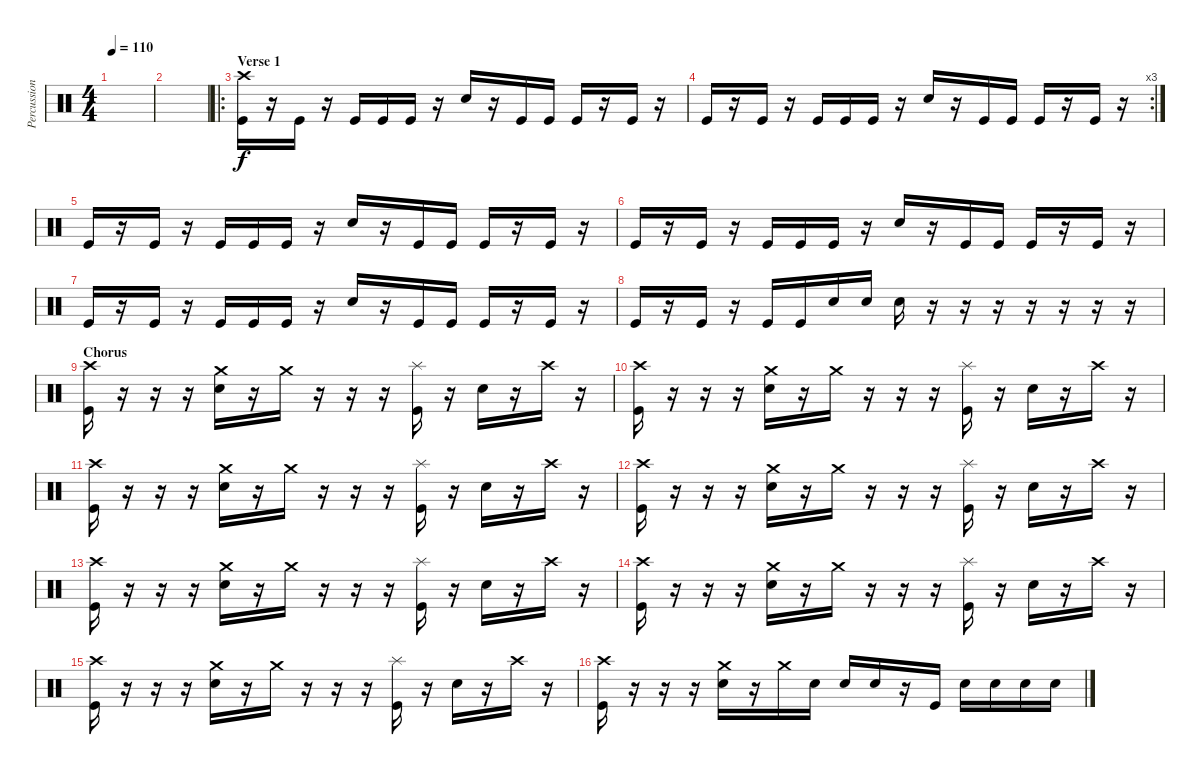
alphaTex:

\track ("Percussions" "Percussion") {instrument percussion}
\staff {score}
\articulation defaults
\ts (4 4)
\tempo 110
\clef neutral
\ks c
|
|
\ro
\section ("" "Verse 1")
("Crash high (hit)" "Kick (hit)").16 r.16 "Kick (hit)".16 r.16 "Kick (hit)".16 "Kick (hit)".16 "Kick (hit)".16 r.16 "Electric Snare (hit)".16 r.16 "Kick (hit)".16 "Kick (hit)".16 "Kick (hit)".16 r.16 "Kick (hit)".16 r.16 |
\rc 3 "Kick (hit)".16
r.16 "Kick (hit)".16 r.16 "Kick (hit)".16 "Kick (hit)".16 "Kick (hit)".16 r.16 "Electric Snare (hit)".16 r.16 "Kick (hit)".16 "Kick (hit)".16 "Kick (hit)".16 r.16 "Kick (hit)".16 r.16 |
"Kick (hit)".16 r.16 "Kick (hit)".16 r.16 "Kick (hit)".16 "Kick (hit)".16 "Kick (hit)".16 r.16 "Electric Snare (hit)".16 r.16 "Kick (hit)".16 "Kick (hit)".16 "Kick (hit)".16 r.16 "Kick (hit)".16 r.16 |
"Kick (hit)".16 r.16 "Kick (hit)".16 r.16 "Kick (hit)".16 "Kick (hit)".16 "Kick (hit)".16 r.16 "Electric Snare (hit)".16 r.16 "Kick (hit)".16 "Kick (hit)".16 "Kick (hit)".16 r.16 "Kick (hit)".16 r.16 |
"Kick (hit)".16 r.16 "Kick (hit)".16 r.16 "Kick (hit)".16 "Kick (hit)".16 "Kick (hit)".16 r.16 "Electric Snare (hit)".16 r.16 "Kick (hit)".16 "Kick (hit)".16 "Kick (hit)".16 r.16 "Kick (hit)".16 r.16 |
"Kick (hit)".16 r.16 "Kick (hit)".16 r.16 "Kick (hit)".16 "Kick (hit)".16 "Electric Snare (hit)".16 "Electric Snare (hit)".16 "Electric Snare (hit)".16 r.16 r.16 r.16 r.16 r.16 r.16 r.16 |
\section ("" "Chorus")
("Crash high (hit)" "Kick (hit)").16 r.16 r.16 r.16 ("Crash medium (hit)" "Electric Snare (hit)").16 r.16 "Crash medium (hit)".16 r.16 r.16 r.16 ("Splash (hit)" "Kick (hit)").16 r.16 "Electric Snare (hit)".16 r.16 "Crash high (hit)".16 r.16 |
("Crash high (hit)" "Kick (hit)").16 r.16 r.16 r.16 ("Crash medium (hit)" "Electric Snare (hit)").16 r.16 "Crash medium (hit)".16 r.16 r.16 r.16 ("Splash (hit)" "Kick (hit)").16 r.16 "Electric Snare (hit)".16 r.16 "Crash high (hit)".16 r.16 |
("Crash high (hit)" "Kick (hit)").16 r.16 r.16 r.16 ("Crash medium (hit)" "Electric Snare (hit)").16 r.16 "Crash medium (hit)".16 r.16 r.16 r.16 ("Splash (hit)" "Kick (hit)").16 r.16 "Electric Snare (hit)".16 r.16 "Crash high (hit)".16 r.16 |
("Crash high (hit)" "Kick (hit)").16 r.16 r.16 r.16 ("Crash medium (hit)" "Electric Snare (hit)").16 r.16 "Crash medium (hit)".16 r.16 r.16 r.16 ("Splash (hit)" "Kick (hit)").16 r.16 "Electric Snare (hit)".16 r.16 "Crash high (hit)".16 r.16 |
("Crash high (hit)" "Kick (hit)").16 r.16 r.16 r.16 ("Crash medium (hit)" "Electric Snare (hit)").16 r.16 "Crash medium (hit)".16 r.16 r.16 r.16 ("Splash (hit)" "Kick (hit)").16 r.16 "Electric Snare (hit)".16 r.16 "Crash high (hit)".16 r.16 |
("Crash high (hit)" "Kick (hit)").16 r.16 r.16 r.16 ("Crash medium (hit)" "Electric Snare (hit)").16 r.16 "Crash medium (hit)".16 r.16 r.16 r.16 ("Splash (hit)" "Kick (hit)").16 r.16 "Electric Snare (hit)".16 r.16 "Crash high (hit)".16 r.16 |
("Crash high (hit)" "Kick (hit)").16 r.16 r.16 r.16 ("Crash medium (hit)" "Electric Snare (hit)").16 r.16 "Crash medium (hit)".16 r.16 r.16 r.16 ("Splash (hit)" "Kick (hit)").16 r.16 "Electric Snare (hit)".16 r.16 "Crash high (hit)".16 r.16 |
("Crash high (hit)" "Kick (hit)").16 r.16 r.16 r.16 ("Crash medium (hit)" "Electric Snare (hit)").16 r.16 "Crash medium (hit)".16 "Electric Snare (hit)".16 "Electric Snare (hit)".16 "Electric Snare (hit)".16 r.16 "Kick (hit)".16 "Electric Snare (hit)".16 "Electric Snare (hit)".16 "Electric Snare (hit)".16 "Electric Snare (hit)".16
